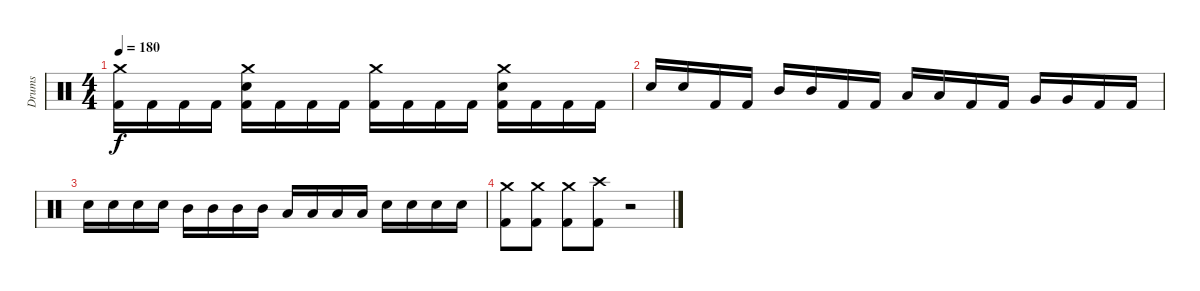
\track ("Drums" "Drums") {instrument percussion}
\staff {score}
\articulation defaults
\ts (4 4)
\tempo 180
\clef neutral
\ks c
("Crash medium (hit)" "Kick (hit) 2").16{dy f} "Kick (hit) 2".16 "Kick (hit) 2".16 "Kick (hit) 2".16 ("Crash medium (hit)" "Snare (hit) 2" "Kick (hit) 2").16 "Kick (hit) 2".16 "Kick (hit) 2".16 "Kick (hit) 2".16 ("Crash medium (hit)" "Kick (hit) 2").16 "Kick (hit) 2".16 "Kick (hit) 2".16 "Kick (hit) 2".16 ("Crash medium (hit)" "Snare (hit) 2" "Kick (hit) 2").16 "Kick (hit) 2".16 "Kick (hit) 2".16 "Kick (hit) 2".16 |
"Snare (hit) 2".16 "Snare (hit) 2".16 "Kick (hit) 2".16 "Kick (hit) 2".16 "Mid Tom (hit)".16 "Mid Tom (hit)".16 "Kick (hit) 2".16 "Kick (hit) 2".16 "Low Tom (hit)".16 "Low Tom (hit)".16 "Kick (hit) 2".16 "Kick (hit) 2".16 "Very Low Tom (hit)".16 "Very Low Tom (hit)".16 "Kick (hit) 2".16 "Kick (hit) 2".16 |
"Snare (hit) 2".16 "Snare (hit) 2".16 "Snare (hit) 2".16 "Snare (hit) 2".16 "Mid Tom (hit)".16 "Mid Tom (hit)".16 "Mid Tom (hit)".16 "Mid Tom (hit)".16 "Low Tom (hit)".16 "Low Tom (hit)".16 "Low Tom (hit)".16 "Low Tom (hit)".16 "Snare (hit) 2".16 "Snare (hit) 2".16 "Snare (hit) 2".16 "Snare (hit) 2".16 |
("Crash medium (hit)" "Kick (hit) 2").8 ("Crash medium (hit)" "Kick (hit) 2").8 ("Crash medium (hit)" "Kick (hit) 2").8 ("Crash high (hit)" "Kick (hit) 2").8 r.2
